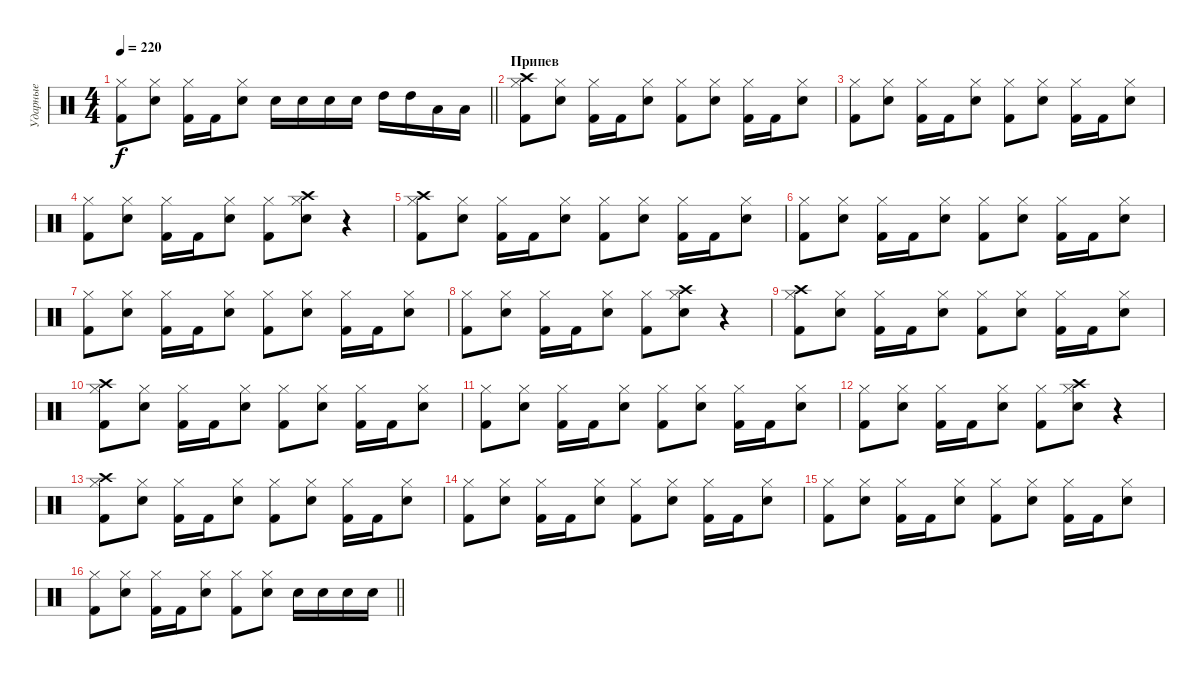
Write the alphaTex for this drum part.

\track ("Ударные" "Ударные") {instrument percussion}
\staff {score}
\articulation defaults
\ts (4 4)
\tempo 220
\clef neutral
\barLineRight lightlight
\ks c
("Kick (hit) 2" "Hi-Hat (closed)").8{dy f} ("Snare (hit) 2" "Hi-Hat (closed)").8 ("Kick (hit) 2" "Hi-Hat (closed)").16 "Kick (hit) 2".16 ("Snare (hit) 2" "Hi-Hat (closed)").8 "Snare (hit) 2".16 "Snare (hit) 2".16 "Snare (hit) 2".16 "Snare (hit) 2".16 "High Tom (hit)".16 "High Tom (hit)".16 "Low Tom (hit)".16 "Low Tom (hit)".16 |
\section ("" "Припев")
("Kick (hit) 2" "Hi-Hat (closed)" "Crash high (hit)").8 ("Snare (hit) 2" "Hi-Hat (closed)").8 ("Kick (hit) 2" "Hi-Hat (closed)").16 "Kick (hit) 2".16 ("Snare (hit) 2" "Hi-Hat (closed)").8 ("Kick (hit) 2" "Hi-Hat (closed)").8 ("Snare (hit) 2" "Hi-Hat (closed)").8 ("Kick (hit) 2" "Hi-Hat (closed)").16 "Kick (hit) 2".16 ("Snare (hit) 2" "Hi-Hat (closed)").8 |
("Kick (hit) 2" "Hi-Hat (closed)").8 ("Snare (hit) 2" "Hi-Hat (closed)").8 ("Kick (hit) 2" "Hi-Hat (closed)").16 "Kick (hit) 2".16 ("Snare (hit) 2" "Hi-Hat (closed)").8 ("Kick (hit) 2" "Hi-Hat (closed)").8 ("Snare (hit) 2" "Hi-Hat (closed)").8 ("Kick (hit) 2" "Hi-Hat (closed)").16 "Kick (hit) 2".16 ("Snare (hit) 2" "Hi-Hat (closed)").8 |
("Kick (hit) 2" "Hi-Hat (closed)").8 ("Snare (hit) 2" "Hi-Hat (closed)").8 ("Kick (hit) 2" "Hi-Hat (closed)").16 "Kick (hit) 2".16 ("Snare (hit) 2" "Hi-Hat (closed)").8 ("Kick (hit) 2" "Hi-Hat (closed)").8 ("Snare (hit) 2" "Hi-Hat (closed)" "Crash high (hit)").8 r.4 |
("Kick (hit) 2" "Hi-Hat (closed)" "Crash high (hit)").8 ("Snare (hit) 2" "Hi-Hat (closed)").8 ("Kick (hit) 2" "Hi-Hat (closed)").16 "Kick (hit) 2".16 ("Snare (hit) 2" "Hi-Hat (closed)").8 ("Kick (hit) 2" "Hi-Hat (closed)").8 ("Snare (hit) 2" "Hi-Hat (closed)").8 ("Kick (hit) 2" "Hi-Hat (closed)").16 "Kick (hit) 2".16 ("Snare (hit) 2" "Hi-Hat (closed)").8 |
("Kick (hit) 2" "Hi-Hat (closed)").8 ("Snare (hit) 2" "Hi-Hat (closed)").8 ("Kick (hit) 2" "Hi-Hat (closed)").16 "Kick (hit) 2".16 ("Snare (hit) 2" "Hi-Hat (closed)").8 ("Kick (hit) 2" "Hi-Hat (closed)").8 ("Snare (hit) 2" "Hi-Hat (closed)").8 ("Kick (hit) 2" "Hi-Hat (closed)").16 "Kick (hit) 2".16 ("Snare (hit) 2" "Hi-Hat (closed)").8 |
("Kick (hit) 2" "Hi-Hat (closed)").8 ("Snare (hit) 2" "Hi-Hat (closed)").8 ("Kick (hit) 2" "Hi-Hat (closed)").16 "Kick (hit) 2".16 ("Snare (hit) 2" "Hi-Hat (closed)").8 ("Kick (hit) 2" "Hi-Hat (closed)").8 ("Snare (hit) 2" "Hi-Hat (closed)").8 ("Kick (hit) 2" "Hi-Hat (closed)").16 "Kick (hit) 2".16 ("Snare (hit) 2" "Hi-Hat (closed)").8 |
("Kick (hit) 2" "Hi-Hat (closed)").8 ("Snare (hit) 2" "Hi-Hat (closed)").8 ("Kick (hit) 2" "Hi-Hat (closed)").16 "Kick (hit) 2".16 ("Snare (hit) 2" "Hi-Hat (closed)").8 ("Kick (hit) 2" "Hi-Hat (closed)").8 ("Snare (hit) 2" "Hi-Hat (closed)" "Crash high (hit)").8 r.4 |
("Kick (hit) 2" "Hi-Hat (closed)" "Crash high (hit)").8 ("Snare (hit) 2" "Hi-Hat (closed)").8 ("Kick (hit) 2" "Hi-Hat (closed)").16 "Kick (hit) 2".16 ("Snare (hit) 2" "Hi-Hat (closed)").8 ("Kick (hit) 2" "Hi-Hat (closed)").8 ("Snare (hit) 2" "Hi-Hat (closed)").8 ("Kick (hit) 2" "Hi-Hat (closed)").16 "Kick (hit) 2".16 ("Snare (hit) 2" "Hi-Hat (closed)").8 |
("Kick (hit) 2" "Hi-Hat (closed)" "Crash high (hit)").8 ("Snare (hit) 2" "Hi-Hat (closed)").8 ("Kick (hit) 2" "Hi-Hat (closed)").16 "Kick (hit) 2".16 ("Snare (hit) 2" "Hi-Hat (closed)").8 ("Kick (hit) 2" "Hi-Hat (closed)").8 ("Snare (hit) 2" "Hi-Hat (closed)").8 ("Kick (hit) 2" "Hi-Hat (closed)").16 "Kick (hit) 2".16 ("Snare (hit) 2" "Hi-Hat (closed)").8 |
("Kick (hit) 2" "Hi-Hat (closed)").8 ("Snare (hit) 2" "Hi-Hat (closed)").8 ("Kick (hit) 2" "Hi-Hat (closed)").16 "Kick (hit) 2".16 ("Snare (hit) 2" "Hi-Hat (closed)").8 ("Kick (hit) 2" "Hi-Hat (closed)").8 ("Snare (hit) 2" "Hi-Hat (closed)").8 ("Kick (hit) 2" "Hi-Hat (closed)").16 "Kick (hit) 2".16 ("Snare (hit) 2" "Hi-Hat (closed)").8 |
("Kick (hit) 2" "Hi-Hat (closed)").8 ("Snare (hit) 2" "Hi-Hat (closed)").8 ("Kick (hit) 2" "Hi-Hat (closed)").16 "Kick (hit) 2".16 ("Snare (hit) 2" "Hi-Hat (closed)").8 ("Kick (hit) 2" "Hi-Hat (closed)").8 ("Snare (hit) 2" "Hi-Hat (closed)" "Crash high (hit)").8 r.4 |
("Kick (hit) 2" "Hi-Hat (closed)" "Crash high (hit)").8 ("Snare (hit) 2" "Hi-Hat (closed)").8 ("Kick (hit) 2" "Hi-Hat (closed)").16 "Kick (hit) 2".16 ("Snare (hit) 2" "Hi-Hat (closed)").8 ("Kick (hit) 2" "Hi-Hat (closed)").8 ("Snare (hit) 2" "Hi-Hat (closed)").8 ("Kick (hit) 2" "Hi-Hat (closed)").16 "Kick (hit) 2".16 ("Snare (hit) 2" "Hi-Hat (closed)").8 |
("Kick (hit) 2" "Hi-Hat (closed)").8 ("Snare (hit) 2" "Hi-Hat (closed)").8 ("Kick (hit) 2" "Hi-Hat (closed)").16 "Kick (hit) 2".16 ("Snare (hit) 2" "Hi-Hat (closed)").8 ("Kick (hit) 2" "Hi-Hat (closed)").8 ("Snare (hit) 2" "Hi-Hat (closed)").8 ("Kick (hit) 2" "Hi-Hat (closed)").16 "Kick (hit) 2".16 ("Snare (hit) 2" "Hi-Hat (closed)").8 |
("Kick (hit) 2" "Hi-Hat (closed)").8 ("Snare (hit) 2" "Hi-Hat (closed)").8 ("Kick (hit) 2" "Hi-Hat (closed)").16 "Kick (hit) 2".16 ("Snare (hit) 2" "Hi-Hat (closed)").8 ("Kick (hit) 2" "Hi-Hat (closed)").8 ("Snare (hit) 2" "Hi-Hat (closed)").8 ("Kick (hit) 2" "Hi-Hat (closed)").16 "Kick (hit) 2".16 ("Snare (hit) 2" "Hi-Hat (closed)").8 |
\barLineRight lightlight
("Kick (hit) 2" "Hi-Hat (closed)").8 ("Snare (hit) 2" "Hi-Hat (closed)").8 ("Kick (hit) 2" "Hi-Hat (closed)").16 "Kick (hit) 2".16 ("Snare (hit) 2" "Hi-Hat (closed)").8 ("Kick (hit) 2" "Hi-Hat (closed)").8 ("Snare (hit) 2" "Hi-Hat (closed)").8 "Snare (hit) 2".16 "Snare (hit) 2".16 "Snare (hit) 2".16 "Snare (hit) 2".16
